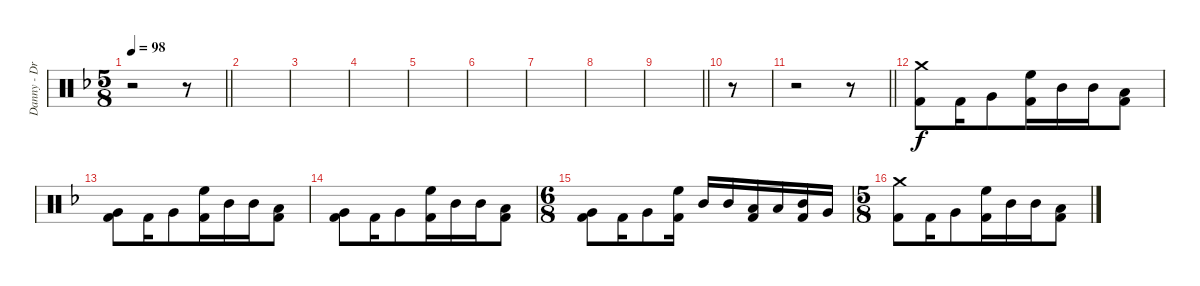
\track ("Danny - Drums" "Danny - Dr") {instrument percussion}
\staff {score}
\articulation defaults
\ts (5 8)
\tempo 98
\clef neutral
\barLineRight lightlight
\ks dminor
r.2{dy f} r.8 |
|
|
|
|
|
|
|
\barLineRight lightlight
|
r.8 |
\barLineRight lightlight
r.2 r.8 |
("Crash medium (hit)" "Kick (hit) 2").8{volume 13 beam merge} "Kick (hit) 2".16 "Very Low Tom (hit)".8 ("High Floor Tom (hit)" "Kick (hit) 2").16{beam merge} "Mid Tom (hit)".16 "Mid Tom (hit)".16{beam merge} ("Low Tom (hit)" "Kick (hit) 2").8 |
("Very Low Tom (hit)" "Kick (hit) 2").8{beam merge} "Kick (hit) 2".16 "Very Low Tom (hit)".8 ("High Floor Tom (hit)" "Kick (hit) 2").16{beam merge} "Mid Tom (hit)".16 "Mid Tom (hit)".16{beam merge} ("Low Tom (hit)" "Kick (hit) 2").8 |
("Very Low Tom (hit)" "Kick (hit) 2").8{beam merge} "Kick (hit) 2".16 "Very Low Tom (hit)".8 ("High Floor Tom (hit)" "Kick (hit) 2").16{beam merge} "Mid Tom (hit)".16 "Mid Tom (hit)".16{beam merge} ("Low Tom (hit)" "Kick (hit) 2").8 |
\ts (6 8)
("Very Low Tom (hit)" "Kick (hit) 2").8 "Kick (hit) 2".16 "Very Low Tom (hit)".8{beam merge} ("High Floor Tom (hit)" "Kick (hit) 2").16{beam split} "Mid Tom (hit)".16 "Mid Tom (hit)".16 ("Low Tom (hit)" "Kick (hit) 2").16 "Low Tom (hit)".16 ("Mid Tom (hit)" "Kick (hit) 2").16 "Very Low Tom (hit)".16 |
\ts (5 8)
("Crash medium (hit)" "Kick (hit) 2").8{beam merge} "Kick (hit) 2".16 "Very Low Tom (hit)".8 ("High Floor Tom (hit)" "Kick (hit) 2").16{beam merge} "Mid Tom (hit)".16 "Mid Tom (hit)".16{beam merge} ("Low Tom (hit)" "Kick (hit) 2").8
